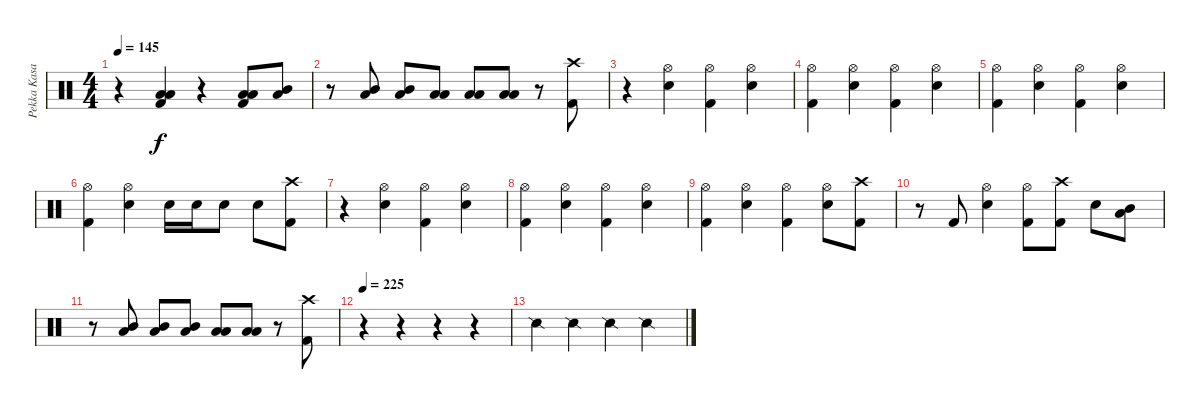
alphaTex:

\track ("Pekka Kasari" "Pekka Kasa") {instrument percussion}
\staff {score}
\articulation defaults
\ts (4 4)
\tempo 145
\clef neutral
\ks c
r.4{dy f} ("Low Floor Tom (hit)" "Kick (hit) 2" "Low Tom (hit)").4 r.4 ("Low Tom (hit)" "Kick (hit) 2" "Low Floor Tom (hit)").8 ("Low Tom (hit)" "Mid Tom (hit)").8 |
r.8 ("Mid Tom (hit)" "Low Tom (hit)").8 ("Mid Tom (hit)" "Low Tom (hit)").8 ("Low Tom (hit)" "Low Floor Tom (hit)").8 ("Low Tom (hit)" "Low Floor Tom (hit)").8 ("Low Floor Tom (hit)" "Low Tom (hit)").8 r.8 ("Crash high (hit)" "Kick (hit) 2").8 |
r.4 ("Hi-Hat (open)" "Snare (hit) 2").4 ("Hi-Hat (open)" "Kick (hit) 2").4 ("Hi-Hat (open)" "Snare (hit) 2").4 |
("Kick (hit) 2" "Hi-Hat (open)").4 ("Hi-Hat (open)" "Snare (hit) 2").4 ("Hi-Hat (open)" "Kick (hit) 2").4 ("Hi-Hat (open)" "Snare (hit) 2").4 |
("Kick (hit) 2" "Hi-Hat (open)").4 ("Hi-Hat (open)" "Snare (hit) 2").4 ("Hi-Hat (open)" "Kick (hit) 2").4 ("Hi-Hat (open)" "Snare (hit) 2").4 |
("Hi-Hat (open)" "Kick (hit) 2").4 ("Hi-Hat (open)" "Snare (hit) 2").4 "Snare (hit) 2".16 "Snare (hit) 2".16 "Snare (hit) 2".8 "Snare (hit) 2".8 ("Crash high (hit)" "Kick (hit) 2").8 |
r.4 ("Snare (hit) 2" "Hi-Hat (open)").4 ("Hi-Hat (open)" "Kick (hit) 2").4 ("Hi-Hat (open)" "Snare (hit) 2").4 |
("Kick (hit) 2" "Hi-Hat (open)").4 ("Hi-Hat (open)" "Snare (hit) 2").4 ("Hi-Hat (open)" "Kick (hit) 2").4 ("Hi-Hat (open)" "Snare (hit) 2").4 |
("Kick (hit) 2" "Hi-Hat (open)").4 ("Hi-Hat (open)" "Snare (hit) 2").4 ("Hi-Hat (open)" "Kick (hit) 2").4 ("Hi-Hat (open)" "Snare (hit) 2").8 ("Crash high (hit)" "Kick (hit) 2").8 |
r.8 "Kick (hit) 2".8 ("Hi-Hat (open)" "Snare (hit) 2").4 ("Hi-Hat (open)" "Kick (hit) 2").8 ("Crash high (hit)" "Kick (hit) 2").8 "Snare (hit) 2".8 ("Mid Tom (hit)" "Low Tom (hit)").8 |
r.8 ("Low Tom (hit)" "Mid Tom (hit)").8 ("Mid Tom (hit)" "Low Tom (hit)").8 ("Low Tom (hit)" "Mid Tom (hit)").8 ("Low Tom (hit)" "Low Floor Tom (hit)").8 ("Low Tom (hit)" "Low Floor Tom (hit)").8 r.8 ("Crash high (hit)" "Kick (hit) 2").8 |
\tempo 225
r.4 r.4 r.4 r.4 |
"Snare (side stick) 2".4 "Snare (side stick) 2".4 "Snare (side stick) 2".4 "Snare (side stick) 2".4
